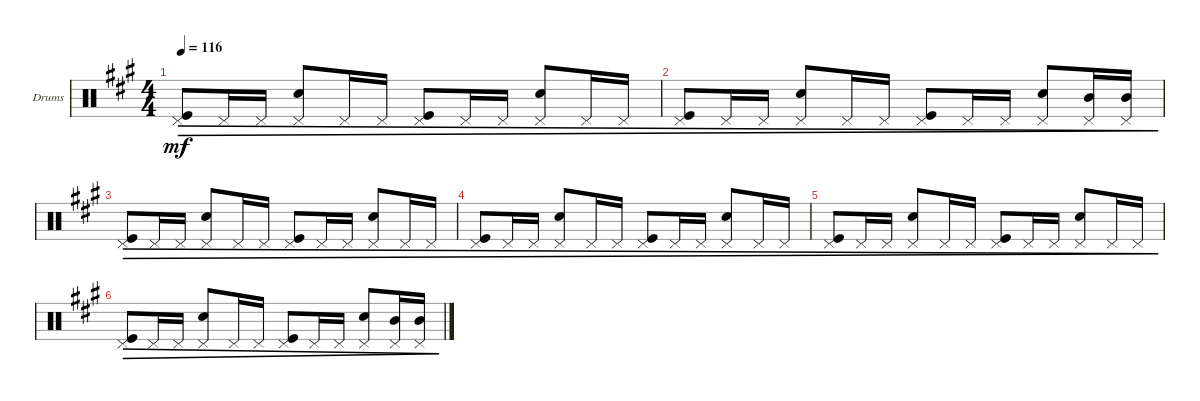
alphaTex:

\defaultSystemsLayout 4
\bracketExtendMode groupsimilarinstruments
\firstSystemTrackNameOrientation horizontal
\otherSystemsTrackNameOrientation horizontal
\track ("Drumkit" "Drums") {instrument percussion}
\staff {score}
\articulation defaults
\ts (4 4)
\tempo 116
\clef neutral
\ks a
("Pedal Hi-Hat (hit)" "Kick (hit)").8{dec dy mf} "Pedal Hi-Hat (hit)".16{dec} "Pedal Hi-Hat (hit)".16{dec} ("Pedal Hi-Hat (hit)" "Snare (hit) 2").8{dec} "Pedal Hi-Hat (hit)".16{dec} "Pedal Hi-Hat (hit)".16{dec} ("Pedal Hi-Hat (hit)" "Kick (hit)").8{dec} "Pedal Hi-Hat (hit)".16{dec} "Pedal Hi-Hat (hit)".16{dec} ("Pedal Hi-Hat (hit)" "Snare (hit) 2").8{dec} "Pedal Hi-Hat (hit)".16{dec} "Pedal Hi-Hat (hit)".16{dec} |
("Pedal Hi-Hat (hit)" "Kick (hit)").8{dec} "Pedal Hi-Hat (hit)".16{dec} "Pedal Hi-Hat (hit)".16{dec} ("Pedal Hi-Hat (hit)" "Snare (hit) 2").8{dec} "Pedal Hi-Hat (hit)".16{dec} "Pedal Hi-Hat (hit)".16{dec} ("Pedal Hi-Hat (hit)" "Kick (hit)").8{dec} "Pedal Hi-Hat (hit)".16{dec} "Pedal Hi-Hat (hit)".16{dec} ("Pedal Hi-Hat (hit)" "Snare (hit) 2").8{dec} ("Pedal Hi-Hat (hit)" "Mid Tom (hit)").16{dec} ("Pedal Hi-Hat (hit)" "Mid Tom (hit)").16{dec} |
("Pedal Hi-Hat (hit)" "Kick (hit)").8{dec} "Pedal Hi-Hat (hit)".16{dec} "Pedal Hi-Hat (hit)".16{dec} ("Pedal Hi-Hat (hit)" "Snare (hit) 2").8{dec} "Pedal Hi-Hat (hit)".16{dec} "Pedal Hi-Hat (hit)".16{dec} ("Pedal Hi-Hat (hit)" "Kick (hit)").8{dec} "Pedal Hi-Hat (hit)".16{dec} "Pedal Hi-Hat (hit)".16{dec} ("Pedal Hi-Hat (hit)" "Snare (hit) 2").8{dec} "Pedal Hi-Hat (hit)".16{dec} "Pedal Hi-Hat (hit)".16{dec} |
("Pedal Hi-Hat (hit)" "Kick (hit)").8{dec} "Pedal Hi-Hat (hit)".16{dec} "Pedal Hi-Hat (hit)".16{dec} ("Pedal Hi-Hat (hit)" "Snare (hit) 2").8{dec} "Pedal Hi-Hat (hit)".16{dec} "Pedal Hi-Hat (hit)".16{dec} ("Pedal Hi-Hat (hit)" "Kick (hit)").8{dec} "Pedal Hi-Hat (hit)".16{dec} "Pedal Hi-Hat (hit)".16{dec} ("Pedal Hi-Hat (hit)" "Snare (hit) 2").8{dec} "Pedal Hi-Hat (hit)".16{dec} "Pedal Hi-Hat (hit)".16{dec} |
("Pedal Hi-Hat (hit)" "Kick (hit)").8{dec} "Pedal Hi-Hat (hit)".16{dec} "Pedal Hi-Hat (hit)".16{dec} ("Pedal Hi-Hat (hit)" "Snare (hit) 2").8{dec} "Pedal Hi-Hat (hit)".16{dec} "Pedal Hi-Hat (hit)".16{dec} ("Pedal Hi-Hat (hit)" "Kick (hit)").8{dec} "Pedal Hi-Hat (hit)".16{dec} "Pedal Hi-Hat (hit)".16{dec} ("Pedal Hi-Hat (hit)" "Snare (hit) 2").8{dec} "Pedal Hi-Hat (hit)".16{dec} "Pedal Hi-Hat (hit)".16{dec} |
("Pedal Hi-Hat (hit)" "Kick (hit)").8{dec} "Pedal Hi-Hat (hit)".16{dec} "Pedal Hi-Hat (hit)".16{dec} ("Pedal Hi-Hat (hit)" "Snare (hit) 2").8{dec} "Pedal Hi-Hat (hit)".16{dec} "Pedal Hi-Hat (hit)".16{dec} ("Pedal Hi-Hat (hit)" "Kick (hit)").8{dec} "Pedal Hi-Hat (hit)".16{dec} "Pedal Hi-Hat (hit)".16{dec} ("Pedal Hi-Hat (hit)" "Snare (hit) 2").8{dec} ("Pedal Hi-Hat (hit)" "Mid Tom (hit)").16{dec} ("Pedal Hi-Hat (hit)" "Mid Tom (hit)").16{dec}
